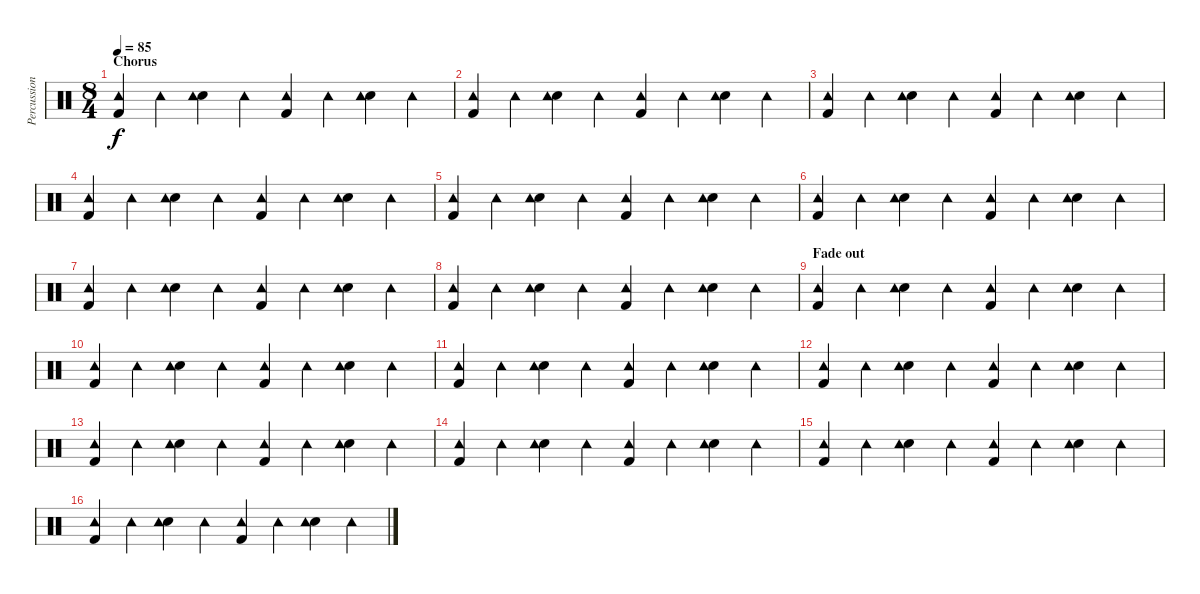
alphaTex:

\track ("Percussion" "Percussion") {instrument percussion}
\staff {score}
\articulation defaults
\ts (8 4)
\section ("" "Chorus")
\tempo 85
\clef neutral
\ks c
("Kick (hit) 2" "Tambourine (hit)").4{dy f volume 14} "Tambourine (hit)".4 ("Electric Snare (hit)" "Tambourine (hit)").4 "Tambourine (hit)".4 ("Kick (hit) 2" "Tambourine (hit)").4 "Tambourine (hit)".4 ("Electric Snare (hit)" "Tambourine (hit)").4 "Tambourine (hit)".4 |
("Kick (hit) 2" "Tambourine (hit)").4 "Tambourine (hit)".4 ("Electric Snare (hit)" "Tambourine (hit)").4 "Tambourine (hit)".4 ("Kick (hit) 2" "Tambourine (hit)").4 "Tambourine (hit)".4 ("Electric Snare (hit)" "Tambourine (hit)").4 "Tambourine (hit)".4 |
("Kick (hit) 2" "Tambourine (hit)").4 "Tambourine (hit)".4 ("Electric Snare (hit)" "Tambourine (hit)").4 "Tambourine (hit)".4 ("Kick (hit) 2" "Tambourine (hit)").4 "Tambourine (hit)".4 ("Electric Snare (hit)" "Tambourine (hit)").4 "Tambourine (hit)".4 |
("Kick (hit) 2" "Tambourine (hit)").4 "Tambourine (hit)".4 ("Electric Snare (hit)" "Tambourine (hit)").4 "Tambourine (hit)".4 ("Kick (hit) 2" "Tambourine (hit)").4 "Tambourine (hit)".4 ("Electric Snare (hit)" "Tambourine (hit)").4 "Tambourine (hit)".4 |
("Kick (hit) 2" "Tambourine (hit)").4 "Tambourine (hit)".4 ("Electric Snare (hit)" "Tambourine (hit)").4 "Tambourine (hit)".4 ("Kick (hit) 2" "Tambourine (hit)").4 "Tambourine (hit)".4 ("Electric Snare (hit)" "Tambourine (hit)").4 "Tambourine (hit)".4 |
("Kick (hit) 2" "Tambourine (hit)").4 "Tambourine (hit)".4 ("Electric Snare (hit)" "Tambourine (hit)").4 "Tambourine (hit)".4 ("Kick (hit) 2" "Tambourine (hit)").4 "Tambourine (hit)".4 ("Electric Snare (hit)" "Tambourine (hit)").4 "Tambourine (hit)".4 |
("Kick (hit) 2" "Tambourine (hit)").4 "Tambourine (hit)".4 ("Electric Snare (hit)" "Tambourine (hit)").4 "Tambourine (hit)".4 ("Kick (hit) 2" "Tambourine (hit)").4 "Tambourine (hit)".4 ("Electric Snare (hit)" "Tambourine (hit)").4 "Tambourine (hit)".4 |
("Kick (hit) 2" "Tambourine (hit)").4 "Tambourine (hit)".4 ("Electric Snare (hit)" "Tambourine (hit)").4 "Tambourine (hit)".4 ("Kick (hit) 2" "Tambourine (hit)").4 "Tambourine (hit)".4 ("Electric Snare (hit)" "Tambourine (hit)").4 "Tambourine (hit)".4 |
\section ("" "Fade out")
("Kick (hit) 2" "Tambourine (hit)").4 "Tambourine (hit)".4 ("Electric Snare (hit)" "Tambourine (hit)").4 "Tambourine (hit)".4 ("Kick (hit) 2" "Tambourine (hit)").4 "Tambourine (hit)".4 ("Electric Snare (hit)" "Tambourine (hit)").4 "Tambourine (hit)".4 |
("Kick (hit) 2" "Tambourine (hit)").4 "Tambourine (hit)".4 ("Electric Snare (hit)" "Tambourine (hit)").4 "Tambourine (hit)".4 ("Kick (hit) 2" "Tambourine (hit)").4 "Tambourine (hit)".4 ("Electric Snare (hit)" "Tambourine (hit)").4 "Tambourine (hit)".4 |
("Kick (hit) 2" "Tambourine (hit)").4 "Tambourine (hit)".4 ("Electric Snare (hit)" "Tambourine (hit)").4 "Tambourine (hit)".4 ("Kick (hit) 2" "Tambourine (hit)").4 "Tambourine (hit)".4 ("Electric Snare (hit)" "Tambourine (hit)").4 "Tambourine (hit)".4 |
("Kick (hit) 2" "Tambourine (hit)").4 "Tambourine (hit)".4 ("Electric Snare (hit)" "Tambourine (hit)").4 "Tambourine (hit)".4 ("Kick (hit) 2" "Tambourine (hit)").4 "Tambourine (hit)".4 ("Electric Snare (hit)" "Tambourine (hit)").4 "Tambourine (hit)".4 |
("Kick (hit) 2" "Tambourine (hit)").4 "Tambourine (hit)".4 ("Electric Snare (hit)" "Tambourine (hit)").4 "Tambourine (hit)".4 ("Kick (hit) 2" "Tambourine (hit)").4 "Tambourine (hit)".4 ("Electric Snare (hit)" "Tambourine (hit)").4 "Tambourine (hit)".4 |
("Kick (hit) 2" "Tambourine (hit)").4 "Tambourine (hit)".4 ("Electric Snare (hit)" "Tambourine (hit)").4 "Tambourine (hit)".4 ("Kick (hit) 2" "Tambourine (hit)").4 "Tambourine (hit)".4 ("Electric Snare (hit)" "Tambourine (hit)").4 "Tambourine (hit)".4 |
("Kick (hit) 2" "Tambourine (hit)").4 "Tambourine (hit)".4 ("Electric Snare (hit)" "Tambourine (hit)").4 "Tambourine (hit)".4 ("Kick (hit) 2" "Tambourine (hit)").4 "Tambourine (hit)".4 ("Electric Snare (hit)" "Tambourine (hit)").4 "Tambourine (hit)".4 |
("Kick (hit) 2" "Tambourine (hit)").4 "Tambourine (hit)".4 ("Electric Snare (hit)" "Tambourine (hit)").4 "Tambourine (hit)".4 ("Kick (hit) 2" "Tambourine (hit)").4 "Tambourine (hit)".4 ("Electric Snare (hit)" "Tambourine (hit)").4 "Tambourine (hit)".4
